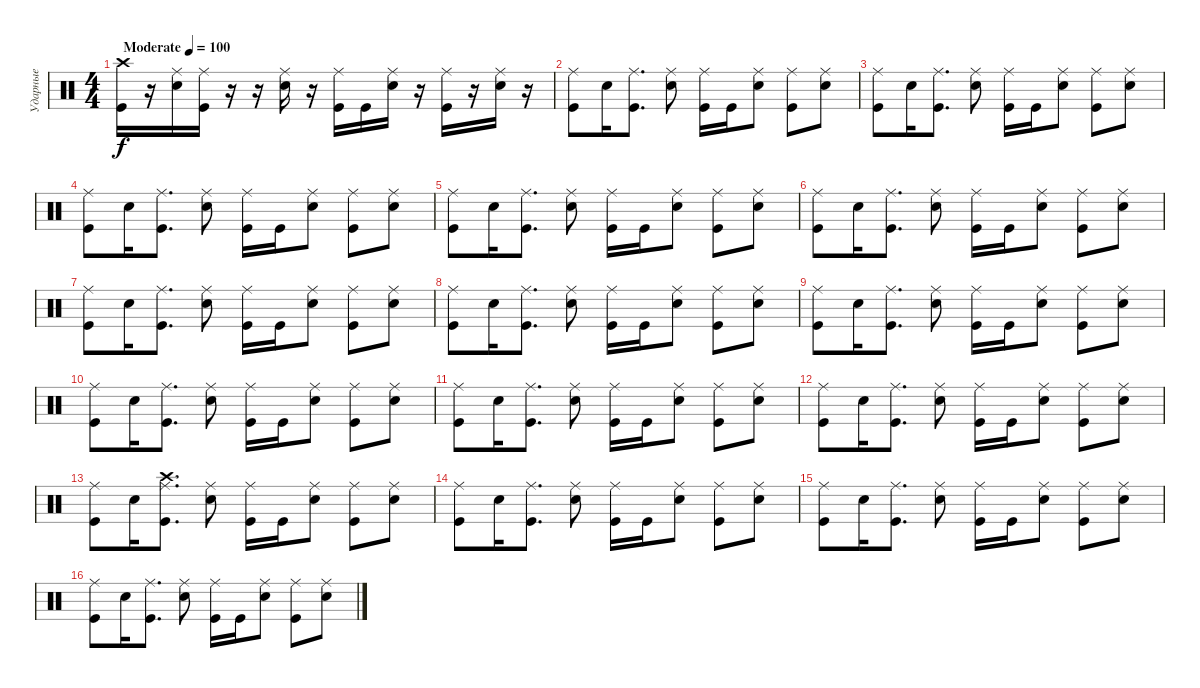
\track ("Ударные" "Ударные") {instrument percussion}
\staff {score}
\articulation defaults
\ts (4 4)
\tempo (100 "Moderate")
\clef neutral
\ks c
("Kick (hit)" "Crash high (hit)").16{dy f} r.16 ("Electric Snare (hit)" "Ride (middle)").16 ("Kick (hit)" "Ride (middle)").16 r.16 r.16 ("Electric Snare (hit)" "Ride (middle)").16 r.16 ("Kick (hit)" "Ride (middle)").16 "Kick (hit)".16 ("Electric Snare (hit)" "Ride (middle)").16 r.16 ("Kick (hit)" "Ride (middle)").16 r.16 ("Electric Snare (hit)" "Ride (middle)").16 r.16 |
("Kick (hit)" "Ride (middle)").8 "Snare (hit) 2".16 ("Kick (hit)" "Ride (middle)").8{d} ("Snare (hit) 2" "Ride (middle)").8 ("Kick (hit)" "Ride (middle)").16 "Kick (hit)".16 ("Snare (hit) 2" "Ride (middle)").8 ("Kick (hit)" "Ride (middle)").8 ("Snare (hit) 2" "Ride (middle)").8 |
("Kick (hit)" "Ride (middle)").8 "Snare (hit) 2".16 ("Kick (hit)" "Ride (middle)").8{d} ("Snare (hit) 2" "Ride (middle)").8 ("Kick (hit)" "Ride (middle)").16 "Kick (hit)".16 ("Snare (hit) 2" "Ride (middle)").8 ("Kick (hit)" "Ride (middle)").8 ("Snare (hit) 2" "Ride (middle)").8 |
("Kick (hit)" "Ride (middle)").8 "Snare (hit) 2".16 ("Kick (hit)" "Ride (middle)").8{d} ("Snare (hit) 2" "Ride (middle)").8 ("Kick (hit)" "Ride (middle)").16 "Kick (hit)".16 ("Snare (hit) 2" "Ride (middle)").8 ("Kick (hit)" "Ride (middle)").8 ("Snare (hit) 2" "Ride (middle)").8 |
("Kick (hit)" "Ride (middle)").8 "Snare (hit) 2".16 ("Kick (hit)" "Ride (middle)").8{d} ("Snare (hit) 2" "Ride (middle)").8 ("Kick (hit)" "Ride (middle)").16 "Kick (hit)".16 ("Snare (hit) 2" "Ride (middle)").8 ("Kick (hit)" "Ride (middle)").8 ("Snare (hit) 2" "Ride (middle)").8 |
("Kick (hit)" "Ride (middle)").8 "Snare (hit) 2".16 ("Kick (hit)" "Ride (middle)").8{d} ("Snare (hit) 2" "Ride (middle)").8 ("Kick (hit)" "Ride (middle)").16 "Kick (hit)".16 ("Snare (hit) 2" "Ride (middle)").8 ("Kick (hit)" "Ride (middle)").8 ("Snare (hit) 2" "Ride (middle)").8 |
("Kick (hit)" "Ride (middle)").8 "Snare (hit) 2".16 ("Kick (hit)" "Ride (middle)").8{d} ("Snare (hit) 2" "Ride (middle)").8 ("Kick (hit)" "Ride (middle)").16 "Kick (hit)".16 ("Snare (hit) 2" "Ride (middle)").8 ("Kick (hit)" "Ride (middle)").8 ("Snare (hit) 2" "Ride (middle)").8 |
("Kick (hit)" "Ride (middle)").8 "Snare (hit) 2".16 ("Kick (hit)" "Ride (middle)").8{d} ("Snare (hit) 2" "Ride (middle)").8 ("Kick (hit)" "Ride (middle)").16 "Kick (hit)".16 ("Snare (hit) 2" "Ride (middle)").8 ("Kick (hit)" "Ride (middle)").8 ("Snare (hit) 2" "Ride (middle)").8 |
("Kick (hit)" "Ride (middle)").8 "Snare (hit) 2".16 ("Kick (hit)" "Ride (middle)").8{d} ("Snare (hit) 2" "Ride (middle)").8 ("Kick (hit)" "Ride (middle)").16 "Kick (hit)".16 ("Snare (hit) 2" "Ride (middle)").8 ("Kick (hit)" "Ride (middle)").8 ("Snare (hit) 2" "Ride (middle)").8 |
("Kick (hit)" "Ride (middle)").8 "Snare (hit) 2".16 ("Kick (hit)" "Ride (middle)").8{d} ("Snare (hit) 2" "Ride (middle)").8 ("Kick (hit)" "Ride (middle)").16 "Kick (hit)".16 ("Snare (hit) 2" "Ride (middle)").8 ("Kick (hit)" "Ride (middle)").8 ("Snare (hit) 2" "Ride (middle)").8 |
("Kick (hit)" "Ride (middle)").8 "Snare (hit) 2".16 ("Kick (hit)" "Ride (middle)").8{d} ("Snare (hit) 2" "Ride (middle)").8 ("Kick (hit)" "Ride (middle)").16 "Kick (hit)".16 ("Snare (hit) 2" "Ride (middle)").8 ("Kick (hit)" "Ride (middle)").8 ("Snare (hit) 2" "Ride (middle)").8 |
("Kick (hit)" "Ride (middle)").8 "Snare (hit) 2".16 ("Kick (hit)" "Ride (middle)").8{d} ("Snare (hit) 2" "Ride (middle)").8 ("Kick (hit)" "Ride (middle)").16 "Kick (hit)".16 ("Snare (hit) 2" "Ride (middle)").8 ("Kick (hit)" "Ride (middle)").8 ("Snare (hit) 2" "Ride (middle)").8 |
("Kick (hit)" "Ride (middle)").8 "Snare (hit) 2".16 ("Kick (hit)" "Ride (middle)" "Crash high (hit)").8{d} ("Snare (hit) 2" "Ride (middle)").8 ("Kick (hit)" "Ride (middle)").16 "Kick (hit)".16 ("Snare (hit) 2" "Ride (middle)").8 ("Kick (hit)" "Ride (middle)").8 ("Snare (hit) 2" "Ride (middle)").8 |
("Kick (hit)" "Ride (middle)").8 "Snare (hit) 2".16 ("Kick (hit)" "Ride (middle)").8{d} ("Snare (hit) 2" "Ride (middle)").8 ("Kick (hit)" "Ride (middle)").16 "Kick (hit)".16 ("Snare (hit) 2" "Ride (middle)").8 ("Kick (hit)" "Ride (middle)").8 ("Snare (hit) 2" "Ride (middle)").8 |
("Kick (hit)" "Ride (middle)").8 "Snare (hit) 2".16 ("Kick (hit)" "Ride (middle)").8{d} ("Snare (hit) 2" "Ride (middle)").8 ("Kick (hit)" "Ride (middle)").16 "Kick (hit)".16 ("Snare (hit) 2" "Ride (middle)").8 ("Kick (hit)" "Ride (middle)").8 ("Snare (hit) 2" "Ride (middle)").8 |
("Kick (hit)" "Ride (middle)").8 "Snare (hit) 2".16 ("Kick (hit)" "Ride (middle)").8{d} ("Snare (hit) 2" "Ride (middle)").8 ("Kick (hit)" "Ride (middle)").16 "Kick (hit)".16 ("Snare (hit) 2" "Ride (middle)").8 ("Kick (hit)" "Ride (middle)").8 ("Snare (hit) 2" "Ride (middle)").8
